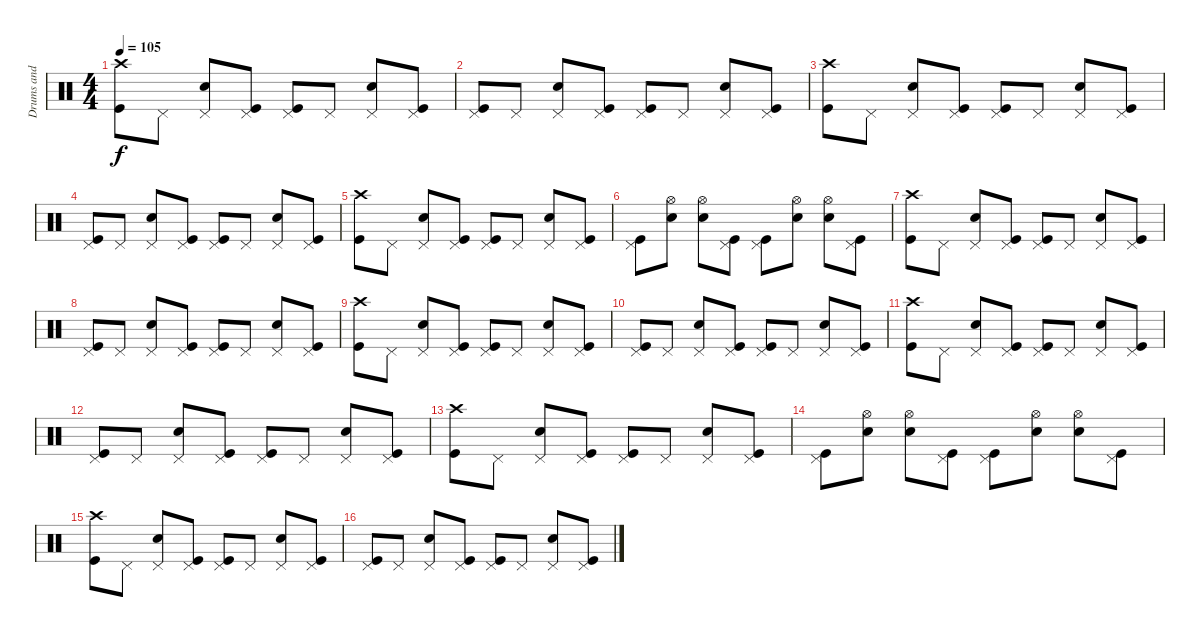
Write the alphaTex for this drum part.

\track ("Drums and loops" "Drums and ") {instrument percussion}
\staff {score}
\articulation defaults
\ts (4 4)
\tempo 105
\clef neutral
\ks c
("Crash high (hit)" "Kick (hit)").8{dy f} "Pedal Hi-Hat (hit)".8 ("Pedal Hi-Hat (hit)" "Electric Snare (hit)").8 ("Pedal Hi-Hat (hit)" "Kick (hit)").8 ("Pedal Hi-Hat (hit)" "Kick (hit)").8 "Pedal Hi-Hat (hit)".8 ("Pedal Hi-Hat (hit)" "Electric Snare (hit)").8 ("Pedal Hi-Hat (hit)" "Kick (hit)").8 |
("Pedal Hi-Hat (hit)" "Kick (hit)").8 "Pedal Hi-Hat (hit)".8 ("Electric Snare (hit)" "Pedal Hi-Hat (hit)").8 ("Pedal Hi-Hat (hit)" "Kick (hit)").8 ("Pedal Hi-Hat (hit)" "Kick (hit)").8 "Pedal Hi-Hat (hit)".8 ("Pedal Hi-Hat (hit)" "Electric Snare (hit)").8 ("Pedal Hi-Hat (hit)" "Kick (hit)").8 |
("Crash high (hit)" "Kick (hit)").8 "Pedal Hi-Hat (hit)".8 ("Pedal Hi-Hat (hit)" "Electric Snare (hit)").8 ("Pedal Hi-Hat (hit)" "Kick (hit)").8 ("Pedal Hi-Hat (hit)" "Kick (hit)").8 "Pedal Hi-Hat (hit)".8 ("Pedal Hi-Hat (hit)" "Electric Snare (hit)").8 ("Pedal Hi-Hat (hit)" "Kick (hit)").8 |
("Pedal Hi-Hat (hit)" "Kick (hit)").8 "Pedal Hi-Hat (hit)".8 ("Electric Snare (hit)" "Pedal Hi-Hat (hit)").8 ("Pedal Hi-Hat (hit)" "Kick (hit)").8 ("Pedal Hi-Hat (hit)" "Kick (hit)").8 "Pedal Hi-Hat (hit)".8 ("Pedal Hi-Hat (hit)" "Electric Snare (hit)").8 ("Pedal Hi-Hat (hit)" "Kick (hit)").8 |
("Crash high (hit)" "Kick (hit)").8 "Pedal Hi-Hat (hit)".8 ("Pedal Hi-Hat (hit)" "Electric Snare (hit)").8 ("Pedal Hi-Hat (hit)" "Kick (hit)").8 ("Pedal Hi-Hat (hit)" "Kick (hit)").8 "Pedal Hi-Hat (hit)".8 ("Pedal Hi-Hat (hit)" "Electric Snare (hit)").8 ("Pedal Hi-Hat (hit)" "Kick (hit)").8 |
("Pedal Hi-Hat (hit)" "Kick (hit)").8 ("Hi-Hat (open)" "Electric Snare (hit)").8 ("Hi-Hat (open)" "Electric Snare (hit)").8 ("Pedal Hi-Hat (hit)" "Kick (hit)").8 ("Pedal Hi-Hat (hit)" "Kick (hit)").8 ("Hi-Hat (open)" "Electric Snare (hit)").8 ("Hi-Hat (open)" "Electric Snare (hit)").8 ("Pedal Hi-Hat (hit)" "Kick (hit)").8 |
("Crash high (hit)" "Kick (hit)").8 "Pedal Hi-Hat (hit)".8 ("Pedal Hi-Hat (hit)" "Electric Snare (hit)").8 ("Pedal Hi-Hat (hit)" "Kick (hit)").8 ("Pedal Hi-Hat (hit)" "Kick (hit)").8 "Pedal Hi-Hat (hit)".8 ("Pedal Hi-Hat (hit)" "Electric Snare (hit)").8 ("Pedal Hi-Hat (hit)" "Kick (hit)").8 |
("Pedal Hi-Hat (hit)" "Kick (hit)").8 "Pedal Hi-Hat (hit)".8 ("Electric Snare (hit)" "Pedal Hi-Hat (hit)").8 ("Pedal Hi-Hat (hit)" "Kick (hit)").8 ("Pedal Hi-Hat (hit)" "Kick (hit)").8 "Pedal Hi-Hat (hit)".8 ("Pedal Hi-Hat (hit)" "Electric Snare (hit)").8 ("Pedal Hi-Hat (hit)" "Kick (hit)").8 |
("Crash high (hit)" "Kick (hit)").8 "Pedal Hi-Hat (hit)".8 ("Pedal Hi-Hat (hit)" "Electric Snare (hit)").8 ("Pedal Hi-Hat (hit)" "Kick (hit)").8 ("Pedal Hi-Hat (hit)" "Kick (hit)").8 "Pedal Hi-Hat (hit)".8 ("Pedal Hi-Hat (hit)" "Electric Snare (hit)").8 ("Pedal Hi-Hat (hit)" "Kick (hit)").8 |
("Pedal Hi-Hat (hit)" "Kick (hit)").8 "Pedal Hi-Hat (hit)".8 ("Electric Snare (hit)" "Pedal Hi-Hat (hit)").8 ("Pedal Hi-Hat (hit)" "Kick (hit)").8 ("Pedal Hi-Hat (hit)" "Kick (hit)").8 "Pedal Hi-Hat (hit)".8 ("Pedal Hi-Hat (hit)" "Electric Snare (hit)").8 ("Pedal Hi-Hat (hit)" "Kick (hit)").8 |
("Crash high (hit)" "Kick (hit)").8 "Pedal Hi-Hat (hit)".8 ("Pedal Hi-Hat (hit)" "Electric Snare (hit)").8 ("Pedal Hi-Hat (hit)" "Kick (hit)").8 ("Pedal Hi-Hat (hit)" "Kick (hit)").8 "Pedal Hi-Hat (hit)".8 ("Pedal Hi-Hat (hit)" "Electric Snare (hit)").8 ("Pedal Hi-Hat (hit)" "Kick (hit)").8 |
("Pedal Hi-Hat (hit)" "Kick (hit)").8 "Pedal Hi-Hat (hit)".8 ("Electric Snare (hit)" "Pedal Hi-Hat (hit)").8 ("Pedal Hi-Hat (hit)" "Kick (hit)").8 ("Pedal Hi-Hat (hit)" "Kick (hit)").8 "Pedal Hi-Hat (hit)".8 ("Pedal Hi-Hat (hit)" "Electric Snare (hit)").8 ("Pedal Hi-Hat (hit)" "Kick (hit)").8 |
("Crash high (hit)" "Kick (hit)").8 "Pedal Hi-Hat (hit)".8 ("Pedal Hi-Hat (hit)" "Electric Snare (hit)").8 ("Pedal Hi-Hat (hit)" "Kick (hit)").8 ("Pedal Hi-Hat (hit)" "Kick (hit)").8 "Pedal Hi-Hat (hit)".8 ("Pedal Hi-Hat (hit)" "Electric Snare (hit)").8 ("Pedal Hi-Hat (hit)" "Kick (hit)").8 |
("Pedal Hi-Hat (hit)" "Kick (hit)").8 ("Hi-Hat (open)" "Electric Snare (hit)").8 ("Hi-Hat (open)" "Electric Snare (hit)").8 ("Pedal Hi-Hat (hit)" "Kick (hit)").8 ("Pedal Hi-Hat (hit)" "Kick (hit)").8 ("Hi-Hat (open)" "Electric Snare (hit)").8 ("Hi-Hat (open)" "Electric Snare (hit)").8 ("Pedal Hi-Hat (hit)" "Kick (hit)").8 |
("Crash high (hit)" "Kick (hit)").8 "Pedal Hi-Hat (hit)".8 ("Pedal Hi-Hat (hit)" "Electric Snare (hit)").8 ("Pedal Hi-Hat (hit)" "Kick (hit)").8 ("Pedal Hi-Hat (hit)" "Kick (hit)").8 "Pedal Hi-Hat (hit)".8 ("Pedal Hi-Hat (hit)" "Electric Snare (hit)").8 ("Pedal Hi-Hat (hit)" "Kick (hit)").8 |
("Pedal Hi-Hat (hit)" "Kick (hit)").8 "Pedal Hi-Hat (hit)".8 ("Electric Snare (hit)" "Pedal Hi-Hat (hit)").8 ("Pedal Hi-Hat (hit)" "Kick (hit)").8 ("Pedal Hi-Hat (hit)" "Kick (hit)").8 "Pedal Hi-Hat (hit)".8 ("Pedal Hi-Hat (hit)" "Electric Snare (hit)").8 ("Pedal Hi-Hat (hit)" "Kick (hit)").8
